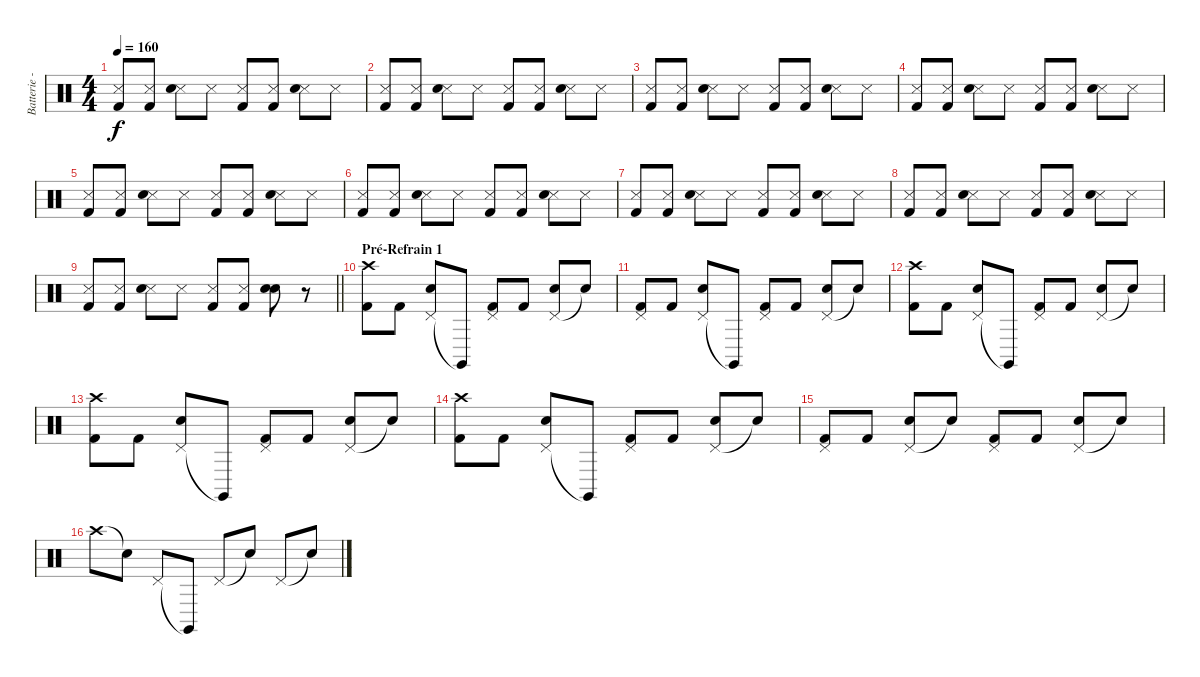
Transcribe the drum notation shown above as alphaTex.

\track ("Batterie - Mikko" "Batterie -") {instrument percussion}
\staff {score}
\articulation defaults
\ts (4 4)
\tempo 160
\clef neutral
\ks c
("Snare (side stick) 3" "Kick (hit) 2").8{dy f} ("Snare (side stick) 3" "Kick (hit) 2").8 ("Snare (side stick) 3" "Snare (hit) 2").8 "Snare (side stick) 3".8 ("Snare (side stick) 3" "Kick (hit) 2").8 ("Snare (side stick) 3" "Kick (hit) 2").8 ("Snare (side stick) 3" "Snare (hit) 2").8 "Snare (side stick) 3".8 |
("Snare (side stick) 3" "Kick (hit) 2").8 ("Snare (side stick) 3" "Kick (hit) 2").8 ("Snare (side stick) 3" "Snare (hit) 2").8 "Snare (side stick) 3".8 ("Snare (side stick) 3" "Kick (hit) 2").8 ("Snare (side stick) 3" "Kick (hit) 2").8 ("Snare (side stick) 3" "Snare (hit) 2").8 "Snare (side stick) 3".8 |
("Snare (side stick) 3" "Kick (hit) 2").8 ("Snare (side stick) 3" "Kick (hit) 2").8 ("Snare (side stick) 3" "Snare (hit) 2").8 "Snare (side stick) 3".8 ("Snare (side stick) 3" "Kick (hit) 2").8 ("Snare (side stick) 3" "Kick (hit) 2").8 ("Snare (side stick) 3" "Snare (hit) 2").8 "Snare (side stick) 3".8 |
("Snare (side stick) 3" "Kick (hit) 2").8 ("Snare (side stick) 3" "Kick (hit) 2").8 ("Snare (side stick) 3" "Snare (hit) 2").8 "Snare (side stick) 3".8 ("Snare (side stick) 3" "Kick (hit) 2").8 ("Snare (side stick) 3" "Kick (hit) 2").8 ("Snare (side stick) 3" "Snare (hit) 2").8 "Snare (side stick) 3".8 |
("Snare (side stick) 3" "Kick (hit) 2").8 ("Snare (side stick) 3" "Kick (hit) 2").8 ("Snare (side stick) 3" "Snare (hit) 2").8 "Snare (side stick) 3".8 ("Snare (side stick) 3" "Kick (hit) 2").8 ("Snare (side stick) 3" "Kick (hit) 2").8 ("Snare (side stick) 3" "Snare (hit) 2").8 "Snare (side stick) 3".8 |
("Snare (side stick) 3" "Kick (hit) 2").8 ("Snare (side stick) 3" "Kick (hit) 2").8 ("Snare (side stick) 3" "Snare (hit) 2").8 "Snare (side stick) 3".8 ("Snare (side stick) 3" "Kick (hit) 2").8 ("Snare (side stick) 3" "Kick (hit) 2").8 ("Snare (side stick) 3" "Snare (hit) 2").8 "Snare (side stick) 3".8 |
("Snare (side stick) 3" "Kick (hit) 2").8 ("Snare (side stick) 3" "Kick (hit) 2").8 ("Snare (side stick) 3" "Snare (hit) 2").8 "Snare (side stick) 3".8 ("Snare (side stick) 3" "Kick (hit) 2").8 ("Snare (side stick) 3" "Kick (hit) 2").8 ("Snare (side stick) 3" "Snare (hit) 2").8 "Snare (side stick) 3".8 |
("Snare (side stick) 3" "Kick (hit) 2").8 ("Snare (side stick) 3" "Kick (hit) 2").8 ("Snare (side stick) 3" "Snare (hit) 2").8 "Snare (side stick) 3".8 ("Snare (side stick) 3" "Kick (hit) 2").8 ("Snare (side stick) 3" "Kick (hit) 2").8 ("Snare (side stick) 3" "Snare (hit) 2").8 "Snare (side stick) 3".8 |
\barLineRight lightlight
("Snare (side stick) 3" "Kick (hit) 2").8 ("Snare (side stick) 3" "Kick (hit) 2").8 ("Snare (side stick) 3" "Snare (hit) 2").8 "Snare (side stick) 3".8 ("Snare (side stick) 3" "Kick (hit) 2").8 ("Snare (side stick) 3" "Kick (hit) 2").8 ("Snare (hit) 2" "Electric Snare (hit)").8 r.8 |
\section ("" "Pré-Refrain 1")
("Crash high (hit)" "Kick (hit) 2").8 "Kick (hit) 2".8 ("Pedal Hi-Hat (hit)" "Snare (hit) 2").8 "Claves (hit)"{t}.8 ("Pedal Hi-Hat (hit)" "Kick (hit) 2").8 "Kick (hit) 2".8 ("Pedal Hi-Hat (hit)" "Snare (hit) 2").8 "Snare (hit)"{t}.8 |
("Pedal Hi-Hat (hit)" "Kick (hit) 2").8 "Kick (hit) 2".8 ("Pedal Hi-Hat (hit)" "Snare (hit) 2").8 "Claves (hit)"{t}.8 ("Pedal Hi-Hat (hit)" "Kick (hit) 2").8 "Kick (hit) 2".8 ("Pedal Hi-Hat (hit)" "Snare (hit) 2").8 "Snare (hit)"{t}.8 |
("Crash high (hit)" "Kick (hit) 2").8 "Kick (hit) 2".8 ("Pedal Hi-Hat (hit)" "Snare (hit) 2").8 "Claves (hit)"{t}.8 ("Pedal Hi-Hat (hit)" "Kick (hit) 2").8 "Kick (hit) 2".8 ("Pedal Hi-Hat (hit)" "Snare (hit) 2").8 "Snare (hit)"{t}.8 |
("Crash high (hit)" "Kick (hit) 2").8 "Kick (hit) 2".8 ("Pedal Hi-Hat (hit)" "Snare (hit) 2").8 "Claves (hit)"{t}.8 ("Pedal Hi-Hat (hit)" "Kick (hit) 2").8 "Kick (hit) 2".8 ("Pedal Hi-Hat (hit)" "Snare (hit) 2").8 "Snare (hit)"{t}.8 |
("Crash high (hit)" "Kick (hit) 2").8 "Kick (hit) 2".8 ("Pedal Hi-Hat (hit)" "Snare (hit) 2").8 "Claves (hit)"{t}.8 ("Pedal Hi-Hat (hit)" "Kick (hit) 2").8 "Kick (hit) 2".8 ("Pedal Hi-Hat (hit)" "Snare (hit) 2").8 "Snare (hit)"{t}.8 |
("Pedal Hi-Hat (hit)" "Kick (hit) 2").8 "Kick (hit) 2".8 ("Pedal Hi-Hat (hit)" "Snare (hit) 2").8 "Snare (hit)"{t}.8 ("Pedal Hi-Hat (hit)" "Kick (hit) 2").8 "Kick (hit) 2".8 ("Pedal Hi-Hat (hit)" "Snare (hit) 2").8 "Snare (hit)"{t}.8 |
"Crash high (hit)".8 "Snare (hit)"{t}.8 "Pedal Hi-Hat (hit)".8 "Claves (hit)"{t}.8 "Pedal Hi-Hat (hit)".8 "Snare (hit)"{t}.8 "Pedal Hi-Hat (hit)".8 "Snare (hit)"{t}.8
